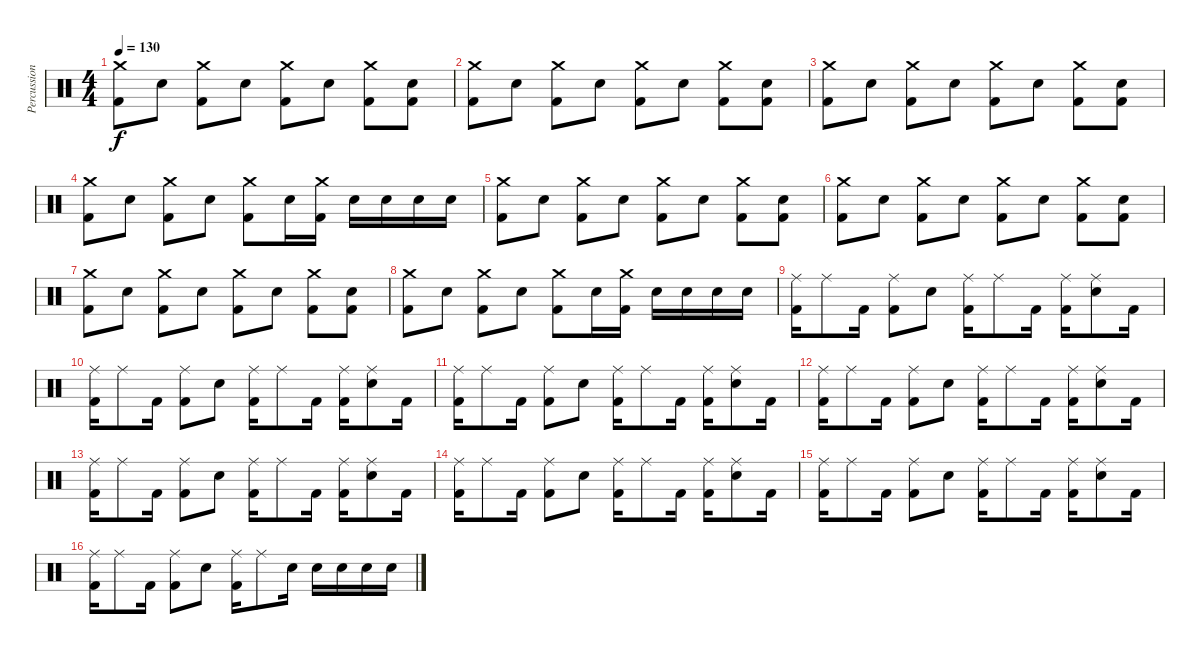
\track ("Percussion" "Percussion") {instrument percussion}
\staff {score}
\articulation defaults
\ts (4 4)
\tempo 130
\clef neutral
\ks c
("Kick (hit) 2" "Crash medium (hit)").8{dy f} "Snare (hit) 2".8 ("Kick (hit) 2" "Crash medium (hit)").8 "Snare (hit) 2".8 ("Kick (hit) 2" "Crash medium (hit)").8 "Snare (hit) 2".8 ("Kick (hit) 2" "Crash medium (hit)").8 ("Kick (hit) 2" "Snare (hit) 2").8 |
("Kick (hit) 2" "Crash medium (hit)").8 "Snare (hit) 2".8 ("Kick (hit) 2" "Crash medium (hit)").8 "Snare (hit) 2".8 ("Kick (hit) 2" "Crash medium (hit)").8 "Snare (hit) 2".8 ("Kick (hit) 2" "Crash medium (hit)").8 ("Kick (hit) 2" "Snare (hit) 2").8 |
("Kick (hit) 2" "Crash medium (hit)").8 "Snare (hit) 2".8 ("Kick (hit) 2" "Crash medium (hit)").8 "Snare (hit) 2".8 ("Kick (hit) 2" "Crash medium (hit)").8 "Snare (hit) 2".8 ("Kick (hit) 2" "Crash medium (hit)").8 ("Kick (hit) 2" "Snare (hit) 2").8 |
("Kick (hit) 2" "Crash medium (hit)").8 "Snare (hit) 2".8 ("Kick (hit) 2" "Crash medium (hit)").8 "Snare (hit) 2".8 ("Kick (hit) 2" "Crash medium (hit)").8 "Snare (hit) 2".16 ("Kick (hit) 2" "Crash medium (hit)").16 "Snare (hit) 2".16 "Snare (hit) 2".16 "Snare (hit) 2".16 "Snare (hit) 2".16 |
("Kick (hit) 2" "Crash medium (hit)").8 "Snare (hit) 2".8 ("Kick (hit) 2" "Crash medium (hit)").8 "Snare (hit) 2".8 ("Kick (hit) 2" "Crash medium (hit)").8 "Snare (hit) 2".8 ("Kick (hit) 2" "Crash medium (hit)").8 ("Kick (hit) 2" "Snare (hit) 2").8 |
("Kick (hit) 2" "Crash medium (hit)").8 "Snare (hit) 2".8 ("Kick (hit) 2" "Crash medium (hit)").8 "Snare (hit) 2".8 ("Kick (hit) 2" "Crash medium (hit)").8 "Snare (hit) 2".8 ("Kick (hit) 2" "Crash medium (hit)").8 ("Kick (hit) 2" "Snare (hit) 2").8 |
("Kick (hit) 2" "Crash medium (hit)").8 "Snare (hit) 2".8 ("Kick (hit) 2" "Crash medium (hit)").8 "Snare (hit) 2".8 ("Kick (hit) 2" "Crash medium (hit)").8 "Snare (hit) 2".8 ("Kick (hit) 2" "Crash medium (hit)").8 ("Kick (hit) 2" "Snare (hit) 2").8 |
("Kick (hit) 2" "Crash medium (hit)").8 "Snare (hit) 2".8 ("Kick (hit) 2" "Crash medium (hit)").8 "Snare (hit) 2".8 ("Kick (hit) 2" "Crash medium (hit)").8 "Snare (hit) 2".16 ("Kick (hit) 2" "Crash medium (hit)").16 "Snare (hit) 2".16 "Snare (hit) 2".16 "Snare (hit) 2".16 "Snare (hit) 2".16 |
("Kick (hit) 2" "Ride (middle)").16 "Ride (middle)".8 "Kick (hit) 2".16 ("Kick (hit) 2" "Ride (middle)").8 "Snare (hit) 2".8 ("Kick (hit) 2" "Ride (middle)").16 "Ride (middle)".8 "Kick (hit) 2".16 ("Kick (hit) 2" "Ride (middle)").16 ("Snare (hit) 2" "Ride (middle)").8 "Kick (hit) 2".16 |
("Kick (hit) 2" "Ride (middle)").16 "Ride (middle)".8 "Kick (hit) 2".16 ("Kick (hit) 2" "Ride (middle)").8 "Snare (hit) 2".8 ("Kick (hit) 2" "Ride (middle)").16 "Ride (middle)".8 "Kick (hit) 2".16 ("Kick (hit) 2" "Ride (middle)").16 ("Snare (hit) 2" "Ride (middle)").8 "Kick (hit) 2".16 |
("Kick (hit) 2" "Ride (middle)").16 "Ride (middle)".8 "Kick (hit) 2".16 ("Kick (hit) 2" "Ride (middle)").8 "Snare (hit) 2".8 ("Kick (hit) 2" "Ride (middle)").16 "Ride (middle)".8 "Kick (hit) 2".16 ("Kick (hit) 2" "Ride (middle)").16 ("Snare (hit) 2" "Ride (middle)").8 "Kick (hit) 2".16 |
("Kick (hit) 2" "Ride (middle)").16 "Ride (middle)".8 "Kick (hit) 2".16 ("Kick (hit) 2" "Ride (middle)").8 "Snare (hit) 2".8 ("Kick (hit) 2" "Ride (middle)").16 "Ride (middle)".8 "Kick (hit) 2".16 ("Kick (hit) 2" "Ride (middle)").16 ("Snare (hit) 2" "Ride (middle)").8 "Kick (hit) 2".16 |
("Kick (hit) 2" "Ride (middle)").16 "Ride (middle)".8 "Kick (hit) 2".16 ("Kick (hit) 2" "Ride (middle)").8 "Snare (hit) 2".8 ("Kick (hit) 2" "Ride (middle)").16 "Ride (middle)".8 "Kick (hit) 2".16 ("Kick (hit) 2" "Ride (middle)").16 ("Snare (hit) 2" "Ride (middle)").8 "Kick (hit) 2".16 |
("Kick (hit) 2" "Ride (middle)").16 "Ride (middle)".8 "Kick (hit) 2".16 ("Kick (hit) 2" "Ride (middle)").8 "Snare (hit) 2".8 ("Kick (hit) 2" "Ride (middle)").16 "Ride (middle)".8 "Kick (hit) 2".16 ("Kick (hit) 2" "Ride (middle)").16 ("Snare (hit) 2" "Ride (middle)").8 "Kick (hit) 2".16 |
("Kick (hit) 2" "Ride (middle)").16 "Ride (middle)".8 "Kick (hit) 2".16 ("Kick (hit) 2" "Ride (middle)").8 "Snare (hit) 2".8 ("Kick (hit) 2" "Ride (middle)").16 "Ride (middle)".8 "Kick (hit) 2".16 ("Kick (hit) 2" "Ride (middle)").16 ("Snare (hit) 2" "Ride (middle)").8 "Kick (hit) 2".16 |
("Kick (hit) 2" "Ride (middle)").16 "Ride (middle)".8 "Kick (hit) 2".16 ("Kick (hit) 2" "Ride (middle)").8 "Snare (hit) 2".8 ("Kick (hit) 2" "Ride (middle)").16 "Ride (middle)".8 "Snare (hit) 2".16 "Snare (hit) 2".16 "Snare (hit) 2".16 "Snare (hit) 2".16 "Snare (hit) 2".16
